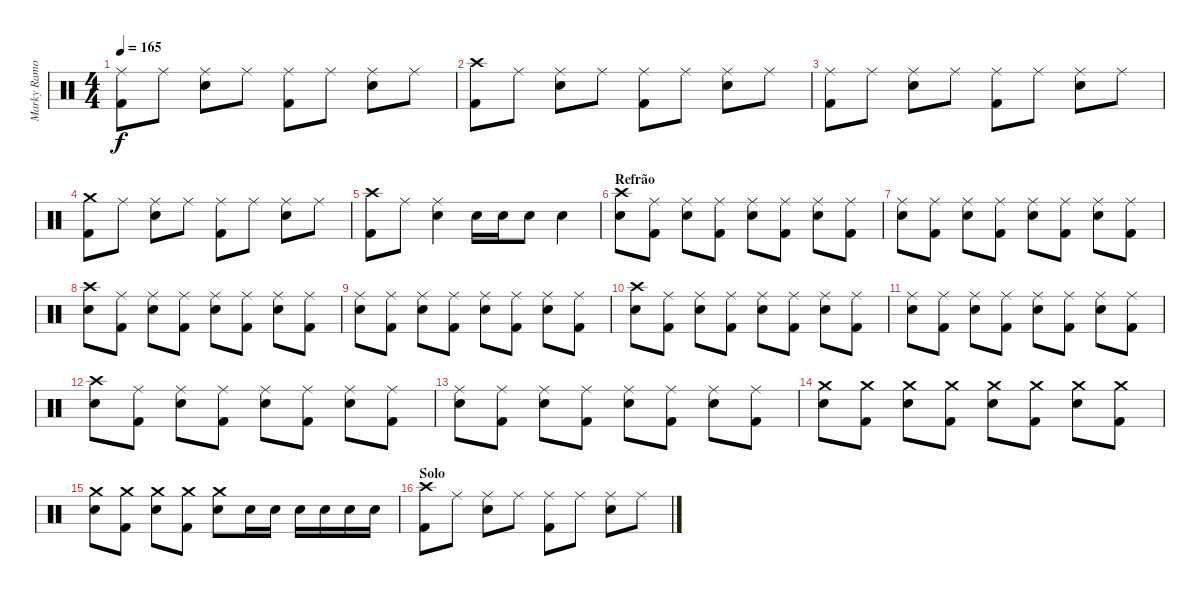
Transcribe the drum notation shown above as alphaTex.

\track ("Marky Ramone, o Próprio" "Marky Ramo") {instrument percussion}
\staff {score}
\articulation defaults
\ts (4 4)
\tempo 165
\clef neutral
\ks c
("Ride (middle)" "Kick (hit) 2").8{dy f} "Ride (middle)".8 ("Ride (middle)" "Electric Snare (hit)").8 "Ride (middle)".8 ("Ride (middle)" "Kick (hit) 2").8 "Ride (middle)".8 ("Ride (middle)" "Electric Snare (hit)").8 "Ride (middle)".8 |
("Crash high (hit)" "Kick (hit) 2").8 "Ride (middle)".8 ("Ride (middle)" "Electric Snare (hit)").8 "Ride (middle)".8 ("Ride (middle)" "Kick (hit) 2").8 "Ride (middle)".8 ("Ride (middle)" "Electric Snare (hit)").8 "Ride (middle)".8 |
("Ride (middle)" "Kick (hit) 2").8 "Ride (middle)".8 ("Ride (middle)" "Electric Snare (hit)").8 "Ride (middle)".8 ("Ride (middle)" "Kick (hit) 2").8 "Ride (middle)".8 ("Ride (middle)" "Electric Snare (hit)").8 "Ride (middle)".8 |
("Crash medium (hit)" "Kick (hit) 2").8 "Ride (middle)".8 ("Ride (middle)" "Electric Snare (hit)").8 "Ride (middle)".8 ("Ride (middle)" "Kick (hit) 2").8 "Ride (middle)".8 ("Ride (middle)" "Electric Snare (hit)").8 "Ride (middle)".8 |
("Crash high (hit)" "Kick (hit) 2").8 "Ride (middle)".8 ("Ride (middle)" "Electric Snare (hit)").4 "Electric Snare (hit)".16 "Electric Snare (hit)".16 "Electric Snare (hit)".8 "Electric Snare (hit)".4 |
\section ("" "Refrão")
("Crash high (hit)" "Electric Snare (hit)").8 ("Ride (middle)" "Kick (hit) 2").8 ("Ride (middle)" "Electric Snare (hit)").8 ("Ride (middle)" "Kick (hit) 2").8 ("Ride (middle)" "Electric Snare (hit)").8 ("Ride (middle)" "Kick (hit) 2").8 ("Ride (middle)" "Electric Snare (hit)").8 ("Ride (middle)" "Kick (hit) 2").8 |
("Ride (middle)" "Electric Snare (hit)").8 ("Ride (middle)" "Kick (hit) 2").8 ("Ride (middle)" "Electric Snare (hit)").8 ("Ride (middle)" "Kick (hit) 2").8 ("Ride (middle)" "Electric Snare (hit)").8 ("Ride (middle)" "Kick (hit) 2").8 ("Ride (middle)" "Electric Snare (hit)").8 ("Ride (middle)" "Kick (hit) 2").8 |
("Crash high (hit)" "Electric Snare (hit)").8 ("Ride (middle)" "Kick (hit) 2").8 ("Ride (middle)" "Electric Snare (hit)").8 ("Ride (middle)" "Kick (hit) 2").8 ("Ride (middle)" "Electric Snare (hit)").8 ("Ride (middle)" "Kick (hit) 2").8 ("Ride (middle)" "Electric Snare (hit)").8 ("Ride (middle)" "Kick (hit) 2").8 |
("Ride (middle)" "Electric Snare (hit)").8 ("Ride (middle)" "Kick (hit) 2").8 ("Ride (middle)" "Electric Snare (hit)").8 ("Ride (middle)" "Kick (hit) 2").8 ("Ride (middle)" "Electric Snare (hit)").8 ("Ride (middle)" "Kick (hit) 2").8 ("Ride (middle)" "Electric Snare (hit)").8 ("Ride (middle)" "Kick (hit) 2").8 |
("Crash high (hit)" "Electric Snare (hit)").8 ("Ride (middle)" "Kick (hit) 2").8 ("Ride (middle)" "Electric Snare (hit)").8 ("Ride (middle)" "Kick (hit) 2").8 ("Ride (middle)" "Electric Snare (hit)").8 ("Ride (middle)" "Kick (hit) 2").8 ("Ride (middle)" "Electric Snare (hit)").8 ("Ride (middle)" "Kick (hit) 2").8 |
("Ride (middle)" "Electric Snare (hit)").8 ("Ride (middle)" "Kick (hit) 2").8 ("Ride (middle)" "Electric Snare (hit)").8 ("Ride (middle)" "Kick (hit) 2").8 ("Ride (middle)" "Electric Snare (hit)").8 ("Ride (middle)" "Kick (hit) 2").8 ("Ride (middle)" "Electric Snare (hit)").8 ("Ride (middle)" "Kick (hit) 2").8 |
("Crash high (hit)" "Electric Snare (hit)").8 ("Ride (middle)" "Kick (hit) 2").8 ("Ride (middle)" "Electric Snare (hit)").8 ("Ride (middle)" "Kick (hit) 2").8 ("Ride (middle)" "Electric Snare (hit)").8 ("Ride (middle)" "Kick (hit) 2").8 ("Ride (middle)" "Electric Snare (hit)").8 ("Ride (middle)" "Kick (hit) 2").8 |
("Ride (middle)" "Electric Snare (hit)").8 ("Ride (middle)" "Kick (hit) 2").8 ("Ride (middle)" "Electric Snare (hit)").8 ("Ride (middle)" "Kick (hit) 2").8 ("Ride (middle)" "Electric Snare (hit)").8 ("Ride (middle)" "Kick (hit) 2").8 ("Ride (middle)" "Electric Snare (hit)").8 ("Ride (middle)" "Kick (hit) 2").8 |
("Crash medium (hit)" "Electric Snare (hit)").8 ("Crash medium (hit)" "Kick (hit) 2").8 ("Crash medium (hit)" "Electric Snare (hit)").8 ("Crash medium (hit)" "Kick (hit) 2").8 ("Crash medium (hit)" "Electric Snare (hit)").8 ("Crash medium (hit)" "Kick (hit) 2").8 ("Crash medium (hit)" "Electric Snare (hit)").8 ("Crash medium (hit)" "Kick (hit) 2").8 |
("Crash medium (hit)" "Electric Snare (hit)").8 ("Crash medium (hit)" "Kick (hit) 2").8 ("Crash medium (hit)" "Electric Snare (hit)").8 ("Crash medium (hit)" "Kick (hit) 2").8 ("Crash medium (hit)" "Electric Snare (hit)").8 "Electric Snare (hit)".16 "Electric Snare (hit)".16 "Electric Snare (hit)".16 "Electric Snare (hit)".16 "Electric Snare (hit)".16 "Electric Snare (hit)".16 |
\section ("" "Solo")
("Crash high (hit)" "Kick (hit) 2").8 "Ride (middle)".8 ("Ride (middle)" "Electric Snare (hit)").8 "Ride (middle)".8 ("Ride (middle)" "Kick (hit) 2").8 "Ride (middle)".8 ("Ride (middle)" "Electric Snare (hit)").8 "Ride (middle)".8
